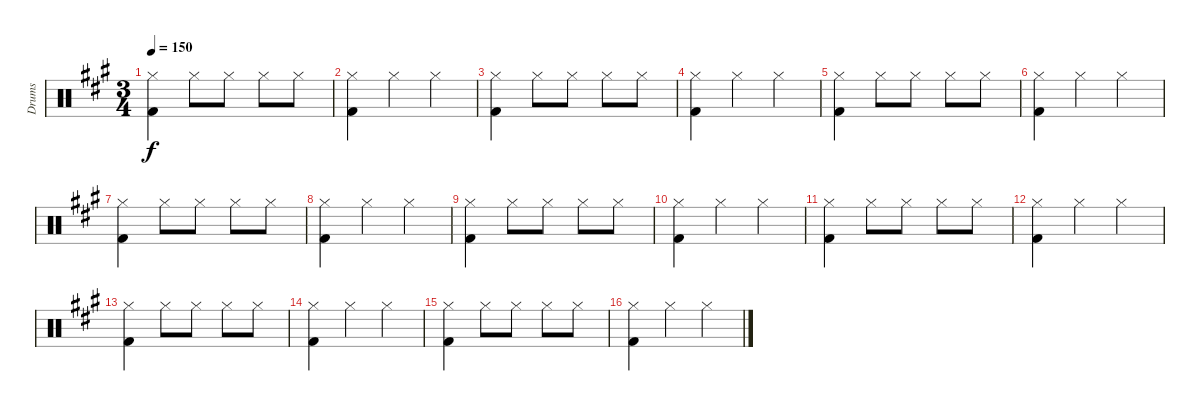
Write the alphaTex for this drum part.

\track ("Drums" "Drums") {instrument percussion}
\staff {score}
\articulation defaults
\ts (3 4)
\tempo 150
\clef neutral
\ks f#minor
("Kick (hit) 2" "Hi-Hat (closed)").4{dy f} "Hi-Hat (closed)".8 "Hi-Hat (closed)".8 "Hi-Hat (closed)".8 "Hi-Hat (closed)".8 |
("Kick (hit) 2" "Hi-Hat (closed)").4 "Hi-Hat (closed)".4 "Hi-Hat (closed)".4 |
("Kick (hit) 2" "Hi-Hat (closed)").4 "Hi-Hat (closed)".8 "Hi-Hat (closed)".8 "Hi-Hat (closed)".8 "Hi-Hat (closed)".8 |
("Kick (hit) 2" "Hi-Hat (closed)").4 "Hi-Hat (closed)".4 "Hi-Hat (closed)".4 |
("Kick (hit) 2" "Hi-Hat (closed)").4 "Hi-Hat (closed)".8 "Hi-Hat (closed)".8 "Hi-Hat (closed)".8 "Hi-Hat (closed)".8 |
("Kick (hit) 2" "Hi-Hat (closed)").4 "Hi-Hat (closed)".4 "Hi-Hat (closed)".4 |
("Kick (hit) 2" "Hi-Hat (closed)").4 "Hi-Hat (closed)".8 "Hi-Hat (closed)".8 "Hi-Hat (closed)".8 "Hi-Hat (closed)".8 |
("Kick (hit) 2" "Hi-Hat (closed)").4 "Hi-Hat (closed)".4 "Hi-Hat (closed)".4 |
("Kick (hit) 2" "Hi-Hat (closed)").4 "Hi-Hat (closed)".8 "Hi-Hat (closed)".8 "Hi-Hat (closed)".8 "Hi-Hat (closed)".8 |
("Kick (hit) 2" "Hi-Hat (closed)").4 "Hi-Hat (closed)".4 "Hi-Hat (closed)".4 |
("Kick (hit) 2" "Hi-Hat (closed)").4 "Hi-Hat (closed)".8 "Hi-Hat (closed)".8 "Hi-Hat (closed)".8 "Hi-Hat (closed)".8 |
("Kick (hit) 2" "Hi-Hat (closed)").4 "Hi-Hat (closed)".4 "Hi-Hat (closed)".4 |
("Kick (hit) 2" "Hi-Hat (closed)").4 "Hi-Hat (closed)".8 "Hi-Hat (closed)".8 "Hi-Hat (closed)".8 "Hi-Hat (closed)".8 |
("Kick (hit) 2" "Hi-Hat (closed)").4 "Hi-Hat (closed)".4 "Hi-Hat (closed)".4 |
("Kick (hit) 2" "Hi-Hat (closed)").4 "Hi-Hat (closed)".8 "Hi-Hat (closed)".8 "Hi-Hat (closed)".8 "Hi-Hat (closed)".8 |
("Kick (hit) 2" "Hi-Hat (closed)").4 "Hi-Hat (closed)".4 "Hi-Hat (closed)".4
